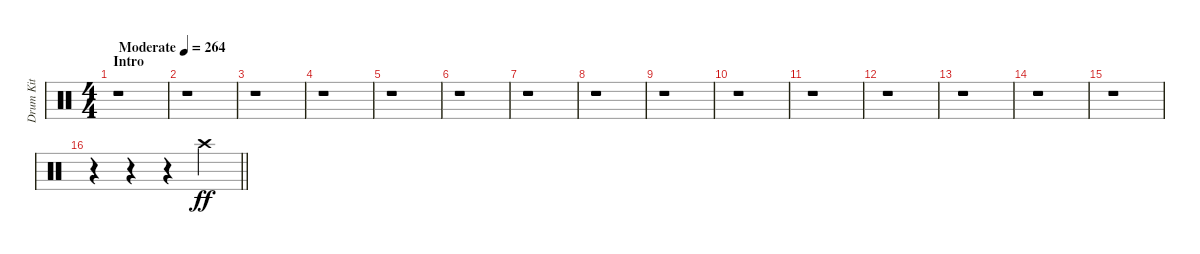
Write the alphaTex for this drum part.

\track ("Drum Kit" "Drum Kit") {instrument percussion}
\staff {score}
\articulation defaults
\ts (4 4)
\section ("" "Intro")
\tempo (264 "Moderate")
\clef neutral
\ks c
r.1{dy ff} |
r.1 |
r.1 |
r.1 |
r.1 |
r.1 |
r.1 |
r.1 |
r.1 |
r.1 |
r.1 |
r.1 |
r.1 |
r.1 |
r.1 |
\barLineRight lightlight
r.4 r.4 r.4 "Crash high (hit)".4
